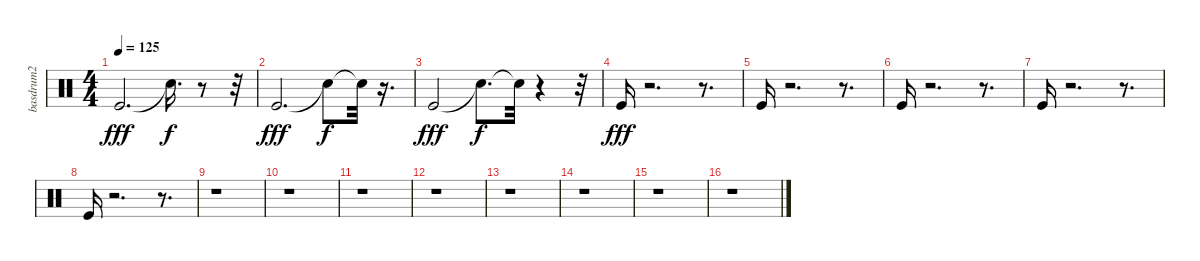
\track ("basdrum2" "basdrum2") {instrument percussion}
\staff {score}
\articulation defaults
\ts (4 4)
\tempo 125
\clef neutral
\ks c "Kick (hit)".2{d dy fff} "Snare (hit)"{t}.16{d dy f}
r.8 r.32 |
"Kick (hit)".2{d dy fff} "Snare (hit)"{t}.8{dy f} "Snare (hit)"{t}.32 r.16{d} |
"Kick (hit)".2{dy fff} "Snare (hit)"{t}.8{d dy f} "Snare (hit)"{t}.32 r.4 r.32 |
"Kick (hit)".16{dy fff} r.2{d} r.8{d} |
"Kick (hit)".16 r.2{d} r.8{d} |
"Kick (hit)".16 r.2{d} r.8{d} |
"Kick (hit)".16 r.2{d} r.8{d} |
"Kick (hit)".16 r.2{d} r.8{d} |
r.1 |
r.1 |
r.1 |
r.1 |
r.1 |
r.1 |
r.1 |
r.1
